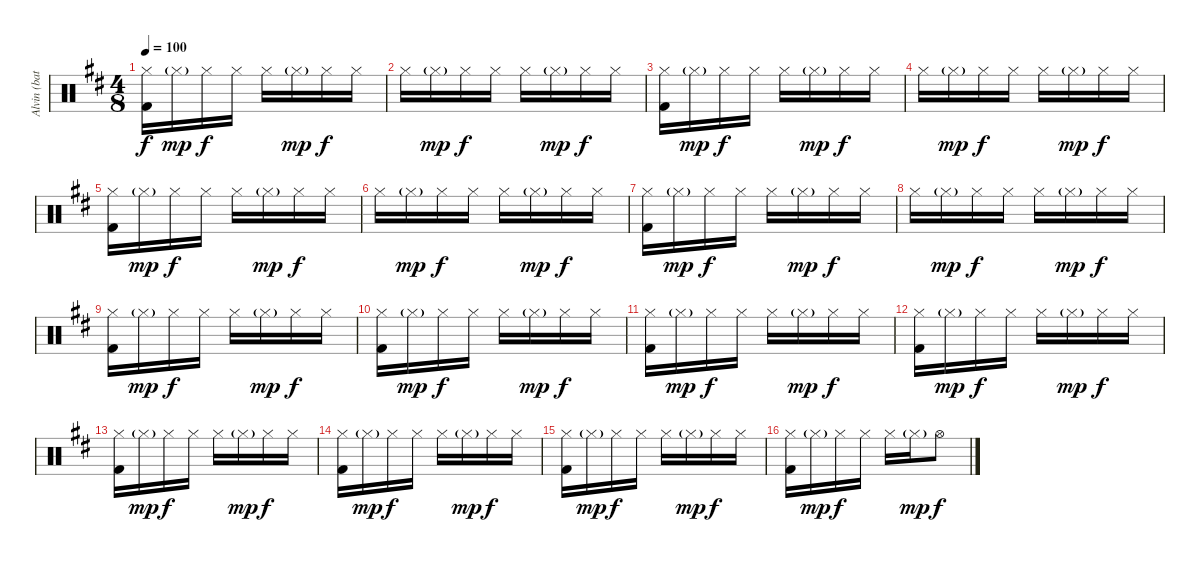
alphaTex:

\track ("Alvin (bateria)" "Alvin (bat") {instrument percussion}
\staff {score}
\articulation defaults
\ts (4 8)
\tempo 100
\clef neutral
\ks bminor
("Kick (hit) 2" "Hi-Hat (closed)").16{dy f} "Hi-Hat (closed)"{g}.16{dy mp} "Hi-Hat (closed)".16{dy f} "Hi-Hat (closed)".16 "Hi-Hat (closed)".16 "Hi-Hat (closed)"{g}.16{dy mp} "Hi-Hat (closed)".16{dy f} "Hi-Hat (closed)".16 |
"Hi-Hat (closed)".16 "Hi-Hat (closed)"{g}.16{dy mp} "Hi-Hat (closed)".16{dy f} "Hi-Hat (closed)".16 "Hi-Hat (closed)".16 "Hi-Hat (closed)"{g}.16{dy mp} "Hi-Hat (closed)".16{dy f} "Hi-Hat (closed)".16 |
("Hi-Hat (closed)" "Kick (hit) 2").16 "Hi-Hat (closed)"{g}.16{dy mp} "Hi-Hat (closed)".16{dy f} "Hi-Hat (closed)".16 "Hi-Hat (closed)".16 "Hi-Hat (closed)"{g}.16{dy mp} "Hi-Hat (closed)".16{dy f} "Hi-Hat (closed)".16 |
"Hi-Hat (closed)".16 "Hi-Hat (closed)"{g}.16{dy mp} "Hi-Hat (closed)".16{dy f} "Hi-Hat (closed)".16 "Hi-Hat (closed)".16 "Hi-Hat (closed)"{g}.16{dy mp} "Hi-Hat (closed)".16{dy f} "Hi-Hat (closed)".16 |
("Hi-Hat (closed)" "Kick (hit) 2").16 "Hi-Hat (closed)"{g}.16{dy mp} "Hi-Hat (closed)".16{dy f} "Hi-Hat (closed)".16 "Hi-Hat (closed)".16 "Hi-Hat (closed)"{g}.16{dy mp} "Hi-Hat (closed)".16{dy f} "Hi-Hat (closed)".16 |
"Hi-Hat (closed)".16 "Hi-Hat (closed)"{g}.16{dy mp} "Hi-Hat (closed)".16{dy f} "Hi-Hat (closed)".16 "Hi-Hat (closed)".16 "Hi-Hat (closed)"{g}.16{dy mp} "Hi-Hat (closed)".16{dy f} "Hi-Hat (closed)".16 |
("Hi-Hat (closed)" "Kick (hit) 2").16 "Hi-Hat (closed)"{g}.16{dy mp} "Hi-Hat (closed)".16{dy f} "Hi-Hat (closed)".16 "Hi-Hat (closed)".16 "Hi-Hat (closed)"{g}.16{dy mp} "Hi-Hat (closed)".16{dy f} "Hi-Hat (closed)".16 |
"Hi-Hat (closed)".16 "Hi-Hat (closed)"{g}.16{dy mp} "Hi-Hat (closed)".16{dy f} "Hi-Hat (closed)".16 "Hi-Hat (closed)".16 "Hi-Hat (closed)"{g}.16{dy mp} "Hi-Hat (closed)".16{dy f} "Hi-Hat (closed)".16 |
("Hi-Hat (closed)" "Kick (hit) 2").16 "Hi-Hat (closed)"{g}.16{dy mp} "Hi-Hat (closed)".16{dy f} "Hi-Hat (closed)".16 "Hi-Hat (closed)".16 "Hi-Hat (closed)"{g}.16{dy mp} "Hi-Hat (closed)".16{dy f} "Hi-Hat (closed)".16 |
("Hi-Hat (closed)" "Kick (hit) 2").16 "Hi-Hat (closed)"{g}.16{dy mp} "Hi-Hat (closed)".16{dy f} "Hi-Hat (closed)".16 "Hi-Hat (closed)".16 "Hi-Hat (closed)"{g}.16{dy mp} "Hi-Hat (closed)".16{dy f} "Hi-Hat (closed)".16 |
("Hi-Hat (closed)" "Kick (hit) 2").16 "Hi-Hat (closed)"{g}.16{dy mp} "Hi-Hat (closed)".16{dy f} "Hi-Hat (closed)".16 "Hi-Hat (closed)".16 "Hi-Hat (closed)"{g}.16{dy mp} "Hi-Hat (closed)".16{dy f} "Hi-Hat (closed)".16 |
("Hi-Hat (closed)" "Kick (hit) 2").16 "Hi-Hat (closed)"{g}.16{dy mp} "Hi-Hat (closed)".16{dy f} "Hi-Hat (closed)".16 "Hi-Hat (closed)".16 "Hi-Hat (closed)"{g}.16{dy mp} "Hi-Hat (closed)".16{dy f} "Hi-Hat (closed)".16 |
("Hi-Hat (closed)" "Kick (hit) 2").16 "Hi-Hat (closed)"{g}.16{dy mp} "Hi-Hat (closed)".16{dy f} "Hi-Hat (closed)".16 "Hi-Hat (closed)".16 "Hi-Hat (closed)"{g}.16{dy mp} "Hi-Hat (closed)".16{dy f} "Hi-Hat (closed)".16 |
("Hi-Hat (closed)" "Kick (hit) 2").16 "Hi-Hat (closed)"{g}.16{dy mp} "Hi-Hat (closed)".16{dy f} "Hi-Hat (closed)".16 "Hi-Hat (closed)".16 "Hi-Hat (closed)"{g}.16{dy mp} "Hi-Hat (closed)".16{dy f} "Hi-Hat (closed)".16 |
("Hi-Hat (closed)" "Kick (hit) 2").16 "Hi-Hat (closed)"{g}.16{dy mp} "Hi-Hat (closed)".16{dy f} "Hi-Hat (closed)".16 "Hi-Hat (closed)".16 "Hi-Hat (closed)"{g}.16{dy mp} "Hi-Hat (closed)".16{dy f} "Hi-Hat (closed)".16 |
("Hi-Hat (closed)" "Kick (hit) 2").16 "Hi-Hat (closed)"{g}.16{dy mp} "Hi-Hat (closed)".16{dy f} "Hi-Hat (closed)".16 "Hi-Hat (closed)".16 "Hi-Hat (closed)"{g}.16{dy mp} "Hi-Hat (open)".8{dy f}
